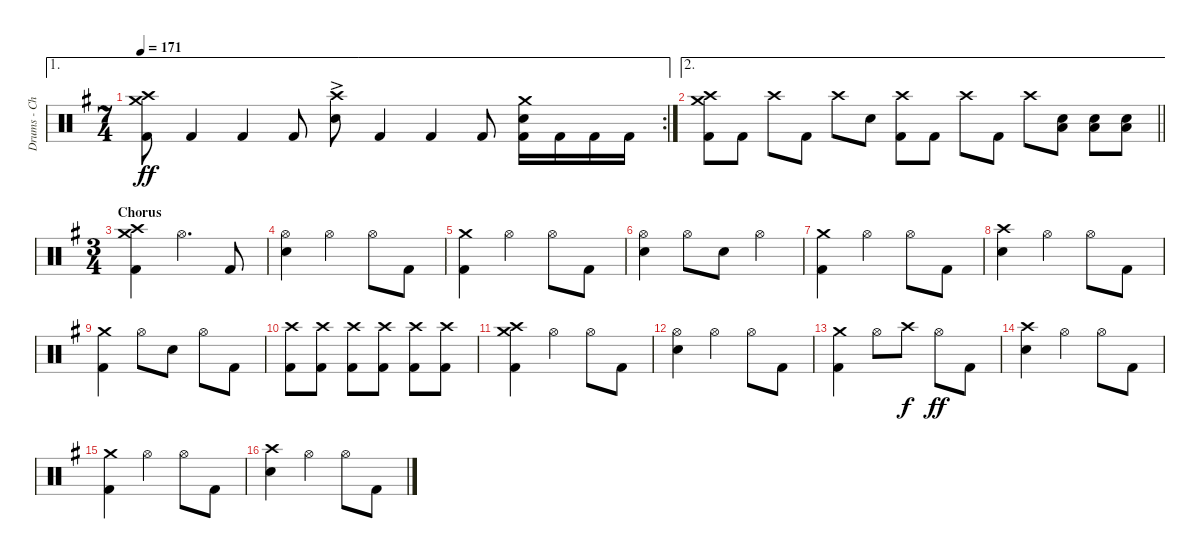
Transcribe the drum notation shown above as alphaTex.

\track ("Drums - Chris Hornbrook" "Drums - Ch") {instrument percussion}
\staff {score}
\articulation defaults
\ae 1
\rc 2
\ts (7 4)
\tempo 171
\clef neutral
\ks eminor
("Crash medium (hit)" "Crash high (hit)" "Kick (hit) 2").8{dy ff} "Kick (hit) 2".4 "Kick (hit) 2".4 "Kick (hit) 2".8 ("Crash high (hit)"{ac} "Electric Snare (hit)").8 "Kick (hit) 2".4 "Kick (hit) 2".4 "Kick (hit) 2".8 ("Crash medium (hit)" "Electric Snare (hit)" "Kick (hit) 2").16 "Kick (hit) 2".16 "Kick (hit) 2".16 "Kick (hit) 2".16 |
\ae 2
\barLineRight lightlight
("Crash medium (hit)" "Crash high (hit)" "Kick (hit) 2").8 "Kick (hit) 2".8 "Crash high (hit)".8 "Kick (hit) 2".8 "Crash high (hit)".8 "Electric Snare (hit)".8 ("Crash high (hit)" "Kick (hit) 2").8 "Kick (hit) 2".8 "Crash high (hit)".8 "Kick (hit) 2".8 "Crash high (hit)".8 ("Low Tom (hit)" "Electric Snare (hit)").8{bu 120} ("Low Tom (hit)" "Electric Snare (hit)").8{bu 120} ("Low Tom (hit)" "Electric Snare (hit)").8{bu 120} |
\ts (3 4)
\section ("" "Chorus")
("Crash medium (hit)" "Crash high (hit)" "Kick (hit) 2").4 "Hi-Hat (open)".4{d} "Kick (hit) 2".8 |
("Hi-Hat (open)" "Electric Snare (hit)").4 "Hi-Hat (open)".4 "Hi-Hat (open)".8 "Kick (hit) 2".8 |
("Crash medium (hit)" "Kick (hit) 2").4 "Hi-Hat (open)".4 "Hi-Hat (open)".8 "Kick (hit) 2".8 |
("Hi-Hat (open)" "Electric Snare (hit)").4 "Hi-Hat (open)".8 "Electric Snare (hit)".8 "Hi-Hat (open)".4 |
("Crash medium (hit)" "Kick (hit) 2").4 "Hi-Hat (open)".4 "Hi-Hat (open)".8 "Kick (hit) 2".8 |
("Crash high (hit)" "Electric Snare (hit)").4 "Hi-Hat (open)".4 "Hi-Hat (open)".8 "Kick (hit) 2".8 |
("Crash medium (hit)" "Kick (hit) 2").4 "Hi-Hat (open)".8 "Electric Snare (hit)".8 "Hi-Hat (open)".8 "Kick (hit) 2".8 |
("Crash high (hit)" "Kick (hit) 2").8 ("Crash high (hit)" "Kick (hit) 2").8 ("Crash high (hit)" "Kick (hit) 2").8 ("Crash high (hit)" "Kick (hit) 2").8 ("Crash high (hit)" "Kick (hit) 2").8 ("Crash high (hit)" "Kick (hit) 2").8 |
("Crash medium (hit)" "Crash high (hit)" "Kick (hit) 2").4 "Hi-Hat (open)".4 "Hi-Hat (open)".8 "Kick (hit) 2".8 |
("Hi-Hat (open)" "Electric Snare (hit)").4 "Hi-Hat (open)".4 "Hi-Hat (open)".8 "Kick (hit) 2".8 |
("Crash medium (hit)" "Kick (hit) 2").4 "Hi-Hat (open)".8 "Crash high (hit)".8{dy f} "Hi-Hat (open)".8{dy ff} "Kick (hit) 2".8 |
("Crash high (hit)" "Electric Snare (hit)").4 "Hi-Hat (open)".4 "Hi-Hat (open)".8 "Kick (hit) 2".8 |
("Crash medium (hit)" "Kick (hit) 2").4 "Hi-Hat (open)".4 "Hi-Hat (open)".8 "Kick (hit) 2".8 |
("Crash high (hit)" "Electric Snare (hit)").4 "Hi-Hat (open)".4 "Hi-Hat (open)".8 "Kick (hit) 2".8
